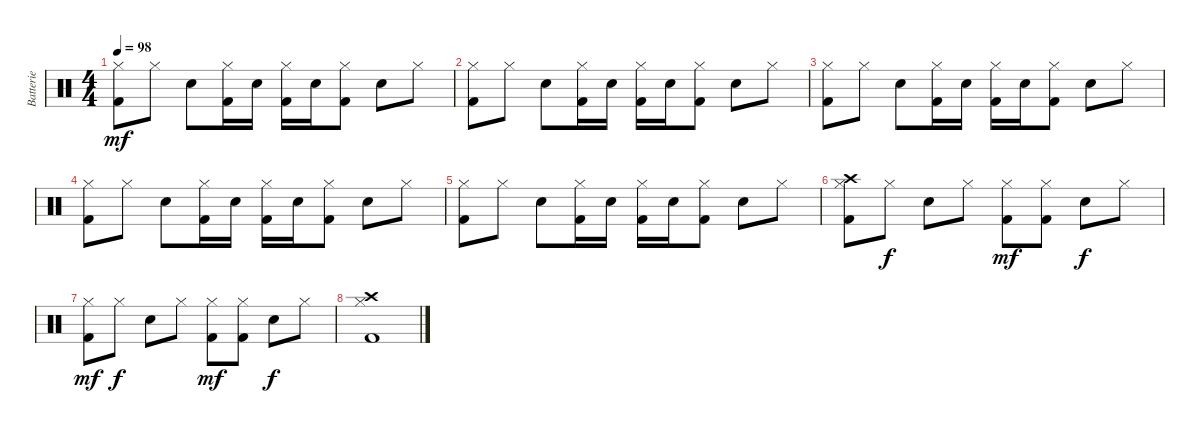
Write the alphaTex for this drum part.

\track ("Batterie" "Batterie") {instrument percussion}
\staff {score}
\articulation defaults
\ts (4 4)
\tempo 98
\clef neutral
\ks c
("Kick (hit) 2" "Hi-Hat (closed)").8{dy mf} "Hi-Hat (closed)".8 "Electric Snare (hit)".8 ("Kick (hit) 2" "Hi-Hat (closed)").16 "Snare (hit) 2".16 ("Kick (hit) 2" "Hi-Hat (closed)").16 "Snare (hit) 2".16 ("Kick (hit) 2" "Hi-Hat (closed)").8 "Electric Snare (hit)".8 "Hi-Hat (closed)".8 |
("Kick (hit) 2" "Hi-Hat (closed)").8 "Hi-Hat (closed)".8 "Electric Snare (hit)".8 ("Kick (hit) 2" "Hi-Hat (closed)").16 "Snare (hit) 2".16 ("Kick (hit) 2" "Hi-Hat (closed)").16 "Snare (hit) 2".16 ("Kick (hit) 2" "Hi-Hat (closed)").8 "Electric Snare (hit)".8 "Hi-Hat (closed)".8 |
("Kick (hit) 2" "Hi-Hat (closed)").8 "Hi-Hat (closed)".8 "Electric Snare (hit)".8 ("Kick (hit) 2" "Hi-Hat (closed)").16 "Snare (hit) 2".16 ("Kick (hit) 2" "Hi-Hat (closed)").16 "Snare (hit) 2".16 ("Kick (hit) 2" "Hi-Hat (closed)").8 "Electric Snare (hit)".8 "Hi-Hat (closed)".8 |
("Kick (hit) 2" "Hi-Hat (closed)").8 "Hi-Hat (closed)".8 "Electric Snare (hit)".8 ("Kick (hit) 2" "Hi-Hat (closed)").16 "Snare (hit) 2".16 ("Kick (hit) 2" "Hi-Hat (closed)").16 "Snare (hit) 2".16 ("Kick (hit) 2" "Hi-Hat (closed)").8 "Electric Snare (hit)".8 "Hi-Hat (closed)".8 |
("Kick (hit) 2" "Hi-Hat (closed)").8 "Hi-Hat (closed)".8 "Electric Snare (hit)".8 ("Kick (hit) 2" "Hi-Hat (closed)").16 "Snare (hit) 2".16 ("Kick (hit) 2" "Hi-Hat (closed)").16 "Snare (hit) 2".16 ("Kick (hit) 2" "Hi-Hat (closed)").8 "Electric Snare (hit)".8 "Hi-Hat (closed)".8 |
("Kick (hit) 2" "Hi-Hat (closed)" "Crash high (hit)").8 "Hi-Hat (closed)".8{dy f} "Snare (hit) 2".8 "Hi-Hat (closed)".8 ("Kick (hit) 2" "Hi-Hat (closed)").8{dy mf} ("Kick (hit) 2" "Hi-Hat (closed)").8 "Snare (hit) 2".8{dy f} "Hi-Hat (closed)".8 |
("Kick (hit) 2" "Hi-Hat (closed)").8{dy mf} "Hi-Hat (closed)".8{dy f} "Snare (hit) 2".8 "Hi-Hat (closed)".8 ("Kick (hit) 2" "Hi-Hat (closed)").8{dy mf} ("Kick (hit) 2" "Hi-Hat (closed)").8 "Snare (hit) 2".8{dy f} "Hi-Hat (closed)".8 |
("Kick (hit) 2" "Hi-Hat (closed)" "Crash high (hit)").1
